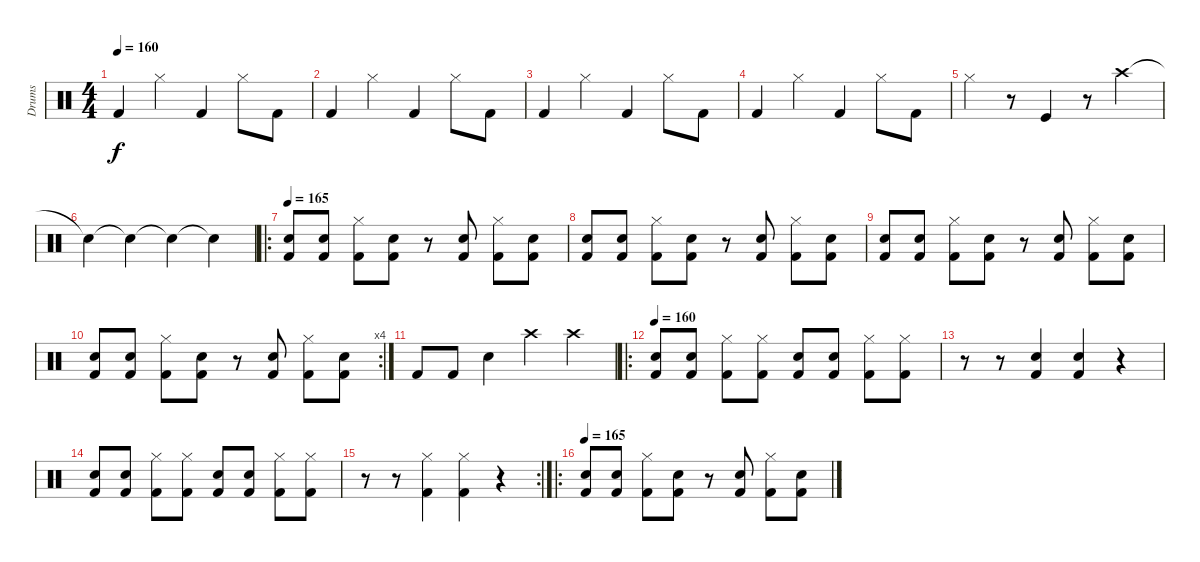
\track ("Drums" "Drums") {instrument percussion}
\staff {score}
\articulation defaults
\ts (4 4)
\tempo 160
\clef neutral
\ks c "Kick (hit) 2".4{dy f} "Hi-Hat (closed)".4 "Kick (hit) 2".4 "Hi-Hat (closed)".8 "Kick (hit) 2".8
|
"Kick (hit) 2".4 "Hi-Hat (closed)".4 "Kick (hit) 2".4 "Hi-Hat (closed)".8 "Kick (hit) 2".8 |
"Kick (hit) 2".4 "Hi-Hat (closed)".4 "Kick (hit) 2".4 "Hi-Hat (closed)".8 "Kick (hit) 2".8 |
"Kick (hit) 2".4 "Hi-Hat (closed)".4 "Kick (hit) 2".4 "Hi-Hat (closed)".8 "Kick (hit) 2".8 |
"Hi-Hat (closed)".4 r.8 "Kick (hit)".4 r.8 "Crash high (hit)".4 |
"Snare (hit)"{t}.4 "Snare (hit)"{t}.4 "Snare (hit)"{t}.4 "Snare (hit)"{t}.4 |
\ro
\tempo 165
("Kick (hit) 2" "Snare (hit) 2").8 ("Kick (hit) 2" "Snare (hit) 2").8 ("Kick (hit) 2" "Hi-Hat (closed)").8 ("Kick (hit) 2" "Snare (hit) 2").8 r.8 ("Kick (hit) 2" "Snare (hit) 2").8 ("Kick (hit) 2" "Hi-Hat (closed)").8 ("Kick (hit) 2" "Snare (hit) 2").8 |
("Kick (hit) 2" "Snare (hit) 2").8 ("Kick (hit) 2" "Snare (hit) 2").8 ("Kick (hit) 2" "Hi-Hat (closed)").8 ("Kick (hit) 2" "Snare (hit) 2").8 r.8 ("Kick (hit) 2" "Snare (hit) 2").8 ("Kick (hit) 2" "Hi-Hat (closed)").8 ("Kick (hit) 2" "Snare (hit) 2").8 |
("Kick (hit) 2" "Snare (hit) 2").8 ("Kick (hit) 2" "Snare (hit) 2").8 ("Kick (hit) 2" "Hi-Hat (closed)").8 ("Kick (hit) 2" "Snare (hit) 2").8 r.8 ("Kick (hit) 2" "Snare (hit) 2").8 ("Kick (hit) 2" "Hi-Hat (closed)").8 ("Kick (hit) 2" "Snare (hit) 2").8 |
\rc 4
("Kick (hit) 2" "Snare (hit) 2").8 ("Kick (hit) 2" "Snare (hit) 2").8 ("Kick (hit) 2" "Hi-Hat (closed)").8 ("Kick (hit) 2" "Snare (hit) 2").8 r.8 ("Kick (hit) 2" "Snare (hit) 2").8 ("Kick (hit) 2" "Hi-Hat (closed)").8 ("Kick (hit) 2" "Snare (hit) 2").8 |
"Kick (hit) 2".8 "Kick (hit) 2".8 "Snare (hit) 2".4 "Crash high (hit)".4 "Crash high (hit)".4 |
\ro
\tempo 160
("Kick (hit) 2" "Snare (hit) 2").8 ("Kick (hit) 2" "Snare (hit) 2").8 ("Kick (hit) 2" "Hi-Hat (closed)").8 ("Kick (hit) 2" "Hi-Hat (closed)").8 ("Kick (hit) 2" "Snare (hit) 2").8 ("Kick (hit) 2" "Snare (hit) 2").8 ("Kick (hit) 2" "Hi-Hat (closed)").8 ("Kick (hit) 2" "Hi-Hat (closed)").8 |
r.8 r.8 ("Kick (hit) 2" "Snare (hit) 2").4 ("Kick (hit) 2" "Snare (hit) 2").4 r.4 |
("Kick (hit) 2" "Snare (hit) 2").8 ("Kick (hit) 2" "Snare (hit) 2").8 ("Kick (hit) 2" "Hi-Hat (closed)").8 ("Kick (hit) 2" "Hi-Hat (closed)").8 ("Kick (hit) 2" "Snare (hit) 2").8 ("Kick (hit) 2" "Snare (hit) 2").8 ("Kick (hit) 2" "Hi-Hat (closed)").8 ("Kick (hit) 2" "Hi-Hat (closed)").8 |
\rc 2
r.8 r.8 ("Kick (hit) 2" "Hi-Hat (closed)").4 ("Kick (hit) 2" "Hi-Hat (closed)").4 r.4 |
\ro
\tempo 165
("Kick (hit) 2" "Snare (hit) 2").8 ("Kick (hit) 2" "Snare (hit) 2").8 ("Kick (hit) 2" "Hi-Hat (closed)").8 ("Kick (hit) 2" "Snare (hit) 2").8 r.8 ("Kick (hit) 2" "Snare (hit) 2").8 ("Kick (hit) 2" "Hi-Hat (closed)").8 ("Kick (hit) 2" "Snare (hit) 2").8
